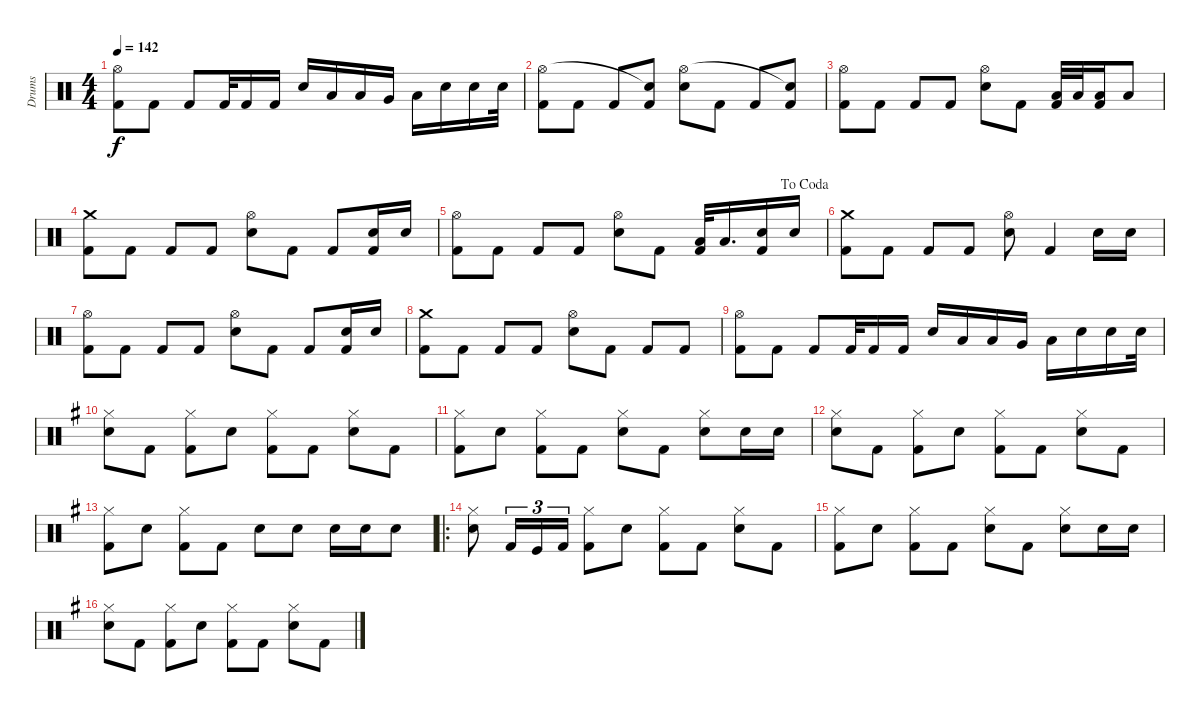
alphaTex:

\track ("Drums" "Drums") {instrument percussion}
\staff {score}
\articulation defaults
\ts (4 4)
\tempo 142
\clef neutral
\ks c
("Kick (hit) 2" "Hi-Hat (open)").8{dy f} "Kick (hit) 2".8 "Kick (hit) 2".8 "Kick (hit) 2".32 "Kick (hit) 2".16 "Kick (hit) 2".16 "Electric Snare (hit)".16 "Low Tom (hit)".16 "Low Tom (hit)".16 "Very Low Tom (hit)".16 "Low Floor Tom (hit)".16 "Electric Snare (hit)".16 "Electric Snare (hit)".16 "Electric Snare (hit)".32 |
("Kick (hit) 2" "Hi-Hat (open)").8 "Kick (hit) 2".8 "Kick (hit) 2".8 ("Kick (hit) 2" "Snare (hit)"{t}).8 ("Electric Snare (hit)" "Hi-Hat (open)").8 "Kick (hit) 2".8 "Kick (hit) 2".8 ("Kick (hit) 2" "Snare (hit)"{t}).8 |
("Kick (hit) 2" "Hi-Hat (open)").8 "Kick (hit) 2".8 "Kick (hit) 2".8 "Kick (hit) 2".8 ("Electric Snare (hit)" "Hi-Hat (open)").8 "Kick (hit) 2".8 ("Low Tom (hit)" "Kick (hit) 2").32 "Low Tom (hit)".32 ("Low Tom (hit)" "Kick (hit) 2").16 "Low Tom (hit)".8 |
("Kick (hit) 2" "Crash medium (hit)").8 "Kick (hit) 2".8 "Kick (hit) 2".8 "Kick (hit) 2".8 ("Electric Snare (hit)" "Hi-Hat (open)").8 "Kick (hit) 2".8 "Kick (hit) 2".8 ("Electric Snare (hit)" "Kick (hit) 2").16 "Electric Snare (hit)".16 |
\jump dacoda
("Kick (hit) 2" "Hi-Hat (open)").8 "Kick (hit) 2".8 "Kick (hit) 2".8 "Kick (hit) 2".8 ("Electric Snare (hit)" "Hi-Hat (open)").8 "Kick (hit) 2".8 ("Low Tom (hit)" "Kick (hit) 2").32 "Low Tom (hit)".16{d} ("Electric Snare (hit)" "Kick (hit) 2").16 "Electric Snare (hit)".16 |
("Kick (hit) 2" "Crash medium (hit)").8 "Kick (hit) 2".8 "Kick (hit) 2".8 "Kick (hit) 2".8 ("Electric Snare (hit)" "Hi-Hat (open)").8 "Kick (hit) 2".4 "Electric Snare (hit)".16 "Electric Snare (hit)".16 |
("Kick (hit) 2" "Hi-Hat (open)").8 "Kick (hit) 2".8 "Kick (hit) 2".8 "Kick (hit) 2".8 ("Electric Snare (hit)" "Hi-Hat (open)").8 "Kick (hit) 2".8 "Kick (hit) 2".8 ("Electric Snare (hit)" "Kick (hit) 2").16 "Electric Snare (hit)".16 |
("Kick (hit) 2" "Crash medium (hit)").8 "Kick (hit) 2".8 "Kick (hit) 2".8 "Kick (hit) 2".8 ("Electric Snare (hit)" "Hi-Hat (open)").8 "Kick (hit) 2".8 "Kick (hit) 2".8 "Kick (hit) 2".8 |
("Kick (hit) 2" "Hi-Hat (open)").8 "Kick (hit) 2".8 "Kick (hit) 2".8 "Kick (hit) 2".32 "Kick (hit) 2".16 "Kick (hit) 2".16 "Electric Snare (hit)".16 "Low Tom (hit)".16 "Low Tom (hit)".16 "Very Low Tom (hit)".16 "Low Floor Tom (hit)".16 "Electric Snare (hit)".16 "Electric Snare (hit)".16 "Electric Snare (hit)".32 |
\ks g
("Electric Snare (hit)" "Hi-Hat (closed)").8 "Kick (hit) 2".8 ("Kick (hit) 2" "Hi-Hat (closed)").8 "Electric Snare (hit)".8 ("Kick (hit) 2" "Hi-Hat (closed)").8 "Kick (hit) 2".8 ("Electric Snare (hit)" "Hi-Hat (closed)").8 "Kick (hit) 2".8 |
("Kick (hit) 2" "Hi-Hat (closed)").8 "Electric Snare (hit)".8 ("Kick (hit) 2" "Hi-Hat (closed)").8 "Kick (hit) 2".8 ("Electric Snare (hit)" "Hi-Hat (closed)").8 "Kick (hit) 2".8 ("Electric Snare (hit)" "Hi-Hat (closed)").8 "Electric Snare (hit)".16 "Electric Snare (hit)".16 |
("Electric Snare (hit)" "Hi-Hat (closed)").8 "Kick (hit) 2".8 ("Kick (hit) 2" "Hi-Hat (closed)").8 "Electric Snare (hit)".8 ("Kick (hit) 2" "Hi-Hat (closed)").8 "Kick (hit) 2".8 ("Electric Snare (hit)" "Hi-Hat (closed)").8 "Kick (hit) 2".8 |
("Kick (hit) 2" "Hi-Hat (closed)").8 "Electric Snare (hit)".8 ("Kick (hit) 2" "Hi-Hat (closed)").8 "Kick (hit) 2".8 "Electric Snare (hit)".8 "Electric Snare (hit)".8 "Electric Snare (hit)".16 "Electric Snare (hit)".16 "Electric Snare (hit)".8 |
\ro
("Electric Snare (hit)" "Hi-Hat (closed)").8 "Kick (hit) 2".16{tu (3 2)} "Kick (hit)".16{tu (3 2)} "Kick (hit) 2".16{tu (3 2)} ("Kick (hit) 2" "Hi-Hat (closed)").8 "Electric Snare (hit)".8 ("Kick (hit) 2" "Hi-Hat (closed)").8 "Kick (hit) 2".8 ("Electric Snare (hit)" "Hi-Hat (closed)").8 "Kick (hit) 2".8 |
("Kick (hit) 2" "Hi-Hat (closed)").8 "Electric Snare (hit)".8 ("Kick (hit) 2" "Hi-Hat (closed)").8 "Kick (hit) 2".8 ("Electric Snare (hit)" "Hi-Hat (closed)").8 "Kick (hit) 2".8 ("Electric Snare (hit)" "Hi-Hat (closed)").8 "Electric Snare (hit)".16 "Electric Snare (hit)".16 |
("Electric Snare (hit)" "Hi-Hat (closed)").8 "Kick (hit) 2".8 ("Kick (hit) 2" "Hi-Hat (closed)").8 "Electric Snare (hit)".8 ("Kick (hit) 2" "Hi-Hat (closed)").8 "Kick (hit) 2".8 ("Electric Snare (hit)" "Hi-Hat (closed)").8 "Kick (hit) 2".8
